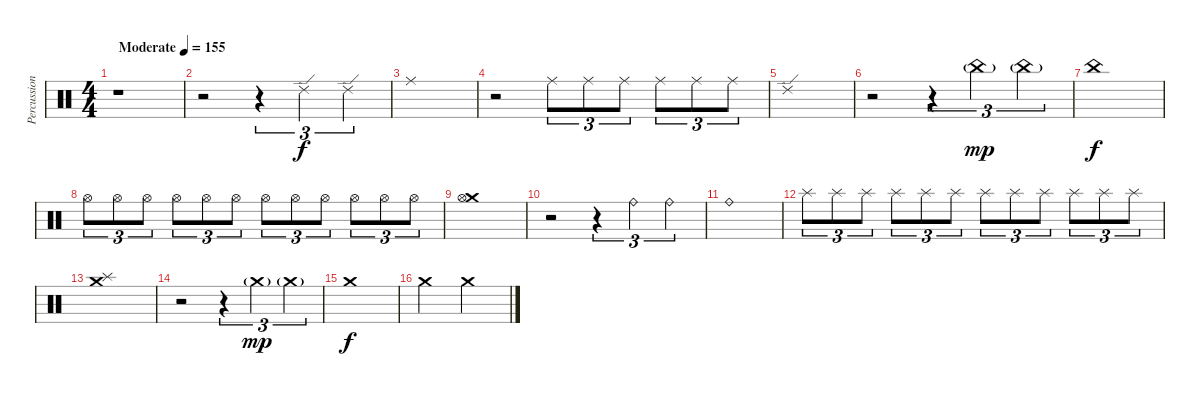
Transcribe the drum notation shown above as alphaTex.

\track ("Percussion" "Percussion") {instrument percussion}
\staff {score}
\articulation defaults
\ts (4 4)
\tempo (155 "Moderate")
\clef neutral
\ks c
r.1{dy f} |
r.2 r.4{tu (3 2)} "Ride (edge) 2".4{tu (3 2)} "Ride (edge) 2".4{tu (3 2)} |
"Ride (middle)".1 |
r.2 "Ride (middle)".8{tu (3 2)} "Ride (middle)".8{tu (3 2)} "Ride (middle)".8{tu (3 2)} "Ride (middle)".8{tu (3 2)} "Ride (middle)".8{tu (3 2)} "Ride (middle)".8{tu (3 2)} |
"Ride (edge) 2".1 |
r.2 r.4{tu (3 2)} "China (hit)"{g}.4{tu (3 2) dy mp} "China (hit)"{g}.4{tu (3 2)} |
"China (hit)".1{dy f} |
"Hi-Hat (open)".8{tu (3 2) volume 1} "Hi-Hat (open)".8{tu (3 2) volume 2} "Hi-Hat (open)".8{tu (3 2) volume 3} "Hi-Hat (open)".8{tu (3 2) volume 4} "Hi-Hat (open)".8{tu (3 2) volume 6} "Hi-Hat (open)".8{tu (3 2) volume 8} "Hi-Hat (open)".8{tu (3 2) volume 9} "Hi-Hat (open)".8{tu (3 2) volume 11} "Hi-Hat (open)".8{tu (3 2) volume 13} "Hi-Hat (open)".8{tu (3 2) volume 14} "Hi-Hat (open)".8{tu (3 2) volume 15} "Hi-Hat (open)".8{tu (3 2) volume 16} |
("Crash medium (hit)" "Hi-Hat (open)").1 |
r.2 r.4{tu (3 2)} "Ride (bell)".4{tu (3 2)} "Ride (bell)".4{tu (3 2)} |
"Ride (bell)".1 |
"Splash (hit)".8{tu (3 2) volume 1} "Splash (hit)".8{tu (3 2) volume 2} "Splash (hit)".8{tu (3 2) volume 3} "Splash (hit)".8{tu (3 2) volume 4} "Splash (hit)".8{tu (3 2) volume 6} "Splash (hit)".8{tu (3 2) volume 8} "Splash (hit)".8{tu (3 2) volume 9} "Splash (hit)".8{tu (3 2) volume 11} "Splash (hit)".8{tu (3 2) volume 13} "Splash (hit)".8{tu (3 2) volume 14} "Splash (hit)".8{tu (3 2) volume 15} "Splash (hit)".8{tu (3 2) volume 16} |
("Crash medium (hit)" "Splash (hit)").1 |
r.2 r.4{tu (3 2)} "Crash medium (hit)"{g}.4{tu (3 2) dy mp} "Crash medium (hit)"{g}.4{tu (3 2)} |
"Crash medium (hit)".1{dy f} |
"Crash medium (hit)".2 "Crash medium (hit)".2
